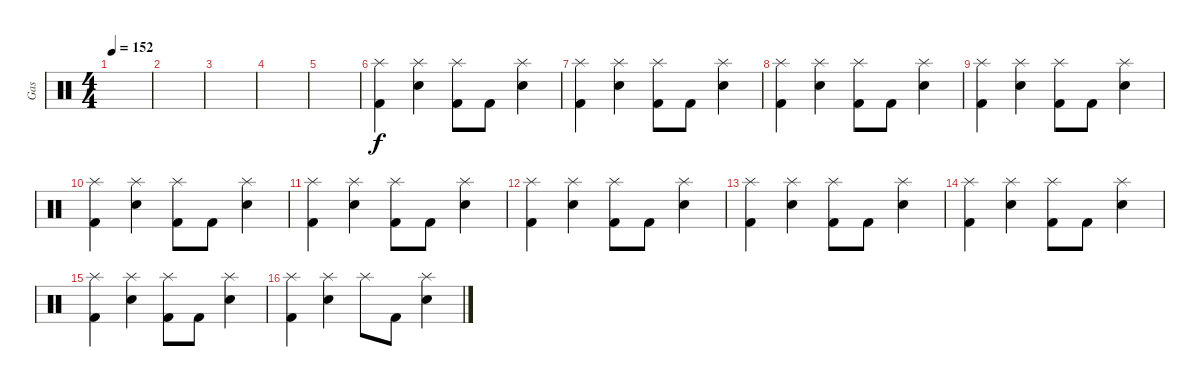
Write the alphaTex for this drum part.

\track ("Gas" "Gas") {instrument percussion}
\staff {score}
\articulation defaults
\ts (4 4)
\tempo 152
\clef neutral
\ks c
|
|
|
|
|
("Splash (hit)" "Kick (hit) 2").4 ("Splash (hit)" "Electric Snare (hit)").4 ("Splash (hit)" "Kick (hit) 2").8 "Kick (hit) 2".8 ("Splash (hit)" "Electric Snare (hit)").4 |
("Splash (hit)" "Kick (hit) 2").4 ("Splash (hit)" "Electric Snare (hit)").4 ("Splash (hit)" "Kick (hit) 2").8 "Kick (hit) 2".8 ("Splash (hit)" "Electric Snare (hit)").4 |
("Splash (hit)" "Kick (hit) 2").4 ("Splash (hit)" "Electric Snare (hit)").4 ("Splash (hit)" "Kick (hit) 2").8 "Kick (hit) 2".8 ("Splash (hit)" "Electric Snare (hit)").4 |
("Splash (hit)" "Kick (hit) 2").4 ("Splash (hit)" "Electric Snare (hit)").4 ("Splash (hit)" "Kick (hit) 2").8 "Kick (hit) 2".8 ("Splash (hit)" "Electric Snare (hit)").4 |
("Splash (hit)" "Kick (hit) 2").4 ("Splash (hit)" "Electric Snare (hit)").4 ("Splash (hit)" "Kick (hit) 2").8 "Kick (hit) 2".8 ("Splash (hit)" "Electric Snare (hit)").4 |
("Splash (hit)" "Kick (hit) 2").4 ("Splash (hit)" "Electric Snare (hit)").4 ("Splash (hit)" "Kick (hit) 2").8 "Kick (hit) 2".8 ("Splash (hit)" "Electric Snare (hit)").4 |
("Splash (hit)" "Kick (hit) 2").4 ("Splash (hit)" "Electric Snare (hit)").4 ("Splash (hit)" "Kick (hit) 2").8 "Kick (hit) 2".8 ("Splash (hit)" "Electric Snare (hit)").4 |
("Splash (hit)" "Kick (hit) 2").4 ("Splash (hit)" "Electric Snare (hit)").4 ("Splash (hit)" "Kick (hit) 2").8 "Kick (hit) 2".8 ("Splash (hit)" "Electric Snare (hit)").4 |
("Splash (hit)" "Kick (hit) 2").4 ("Splash (hit)" "Electric Snare (hit)").4 ("Splash (hit)" "Kick (hit) 2").8 "Kick (hit) 2".8 ("Splash (hit)" "Electric Snare (hit)").4 |
("Splash (hit)" "Kick (hit) 2").4 ("Splash (hit)" "Electric Snare (hit)").4 ("Splash (hit)" "Kick (hit) 2").8 "Kick (hit) 2".8 ("Splash (hit)" "Electric Snare (hit)").4 |
("Splash (hit)" "Kick (hit) 2").4 ("Splash (hit)" "Electric Snare (hit)").4 "Splash (hit)".8 "Kick (hit) 2".8 ("Splash (hit)" "Electric Snare (hit)").4
